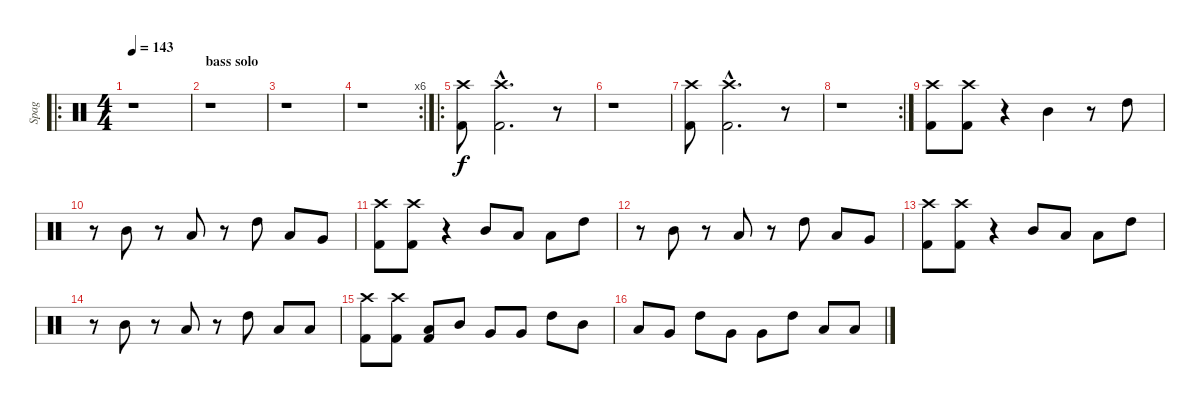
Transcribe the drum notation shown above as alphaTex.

\track ("Spag" "Spag") {instrument percussion}
\staff {score}
\articulation defaults
\ro
\ts (4 4)
\tempo 143
\clef neutral
\ks c
r.1{dy f} |
\section ("" "bass solo")
r.1 |
r.1 |
\rc 6
r.1 |
\ro
("Crash high (hit)" "Kick (hit) 2").8 ("Crash high (hit)"{hac} "Kick (hit) 2"{hac}).2{d} r.8 |
r.1 |
("Crash high (hit)" "Kick (hit) 2").8 ("Crash high (hit)"{hac} "Kick (hit) 2"{hac}).2{d} r.8 |
\rc 2
r.1 |
("Crash high (hit)" "Kick (hit) 2").8 ("Crash high (hit)" "Kick (hit) 2").8 r.4 "Mid Tom (hit)".4 r.8 "High Tom (hit)".8 |
r.8 "Mid Tom (hit)".8 r.8 "Low Tom (hit)".8 r.8 "High Tom (hit)".8 "Low Tom (hit)".8 "Very Low Tom (hit)".8 |
("Crash high (hit)" "Kick (hit) 2").8 ("Crash high (hit)" "Kick (hit) 2").8 r.4 "Mid Tom (hit)".8 "Low Tom (hit)".8 "Low Tom (hit)".8 "High Tom (hit)".8 |
r.8 "Mid Tom (hit)".8 r.8 "Low Tom (hit)".8 r.8 "High Tom (hit)".8 "Low Tom (hit)".8 "Very Low Tom (hit)".8 |
("Crash high (hit)" "Kick (hit) 2").8 ("Crash high (hit)" "Kick (hit) 2").8 r.4 "Mid Tom (hit)".8 "Low Floor Tom (hit)".8 "Low Floor Tom (hit)".8 "High Tom (hit)".8 |
r.8 "Mid Tom (hit)".8 r.8 "Low Tom (hit)".8 r.8 "High Tom (hit)".8 "Low Tom (hit)".8 "Low Floor Tom (hit)".8 |
("Crash high (hit)" "Kick (hit) 2").8 ("Crash high (hit)" "Kick (hit) 2").8 ("Low Floor Tom (hit)" "Kick (hit) 2").8 "Mid Tom (hit)".8 "Very Low Tom (hit)".8 "Very Low Tom (hit)".8 "High Tom (hit)".8 "Mid Tom (hit)".8 |
"Low Floor Tom (hit)".8 "Very Low Tom (hit)".8 "High Tom (hit)".8 "Very Low Tom (hit)".8 "Very Low Tom (hit)".8 "High Tom (hit)".8 "Low Floor Tom (hit)".8 "Low Floor Tom (hit)".8
